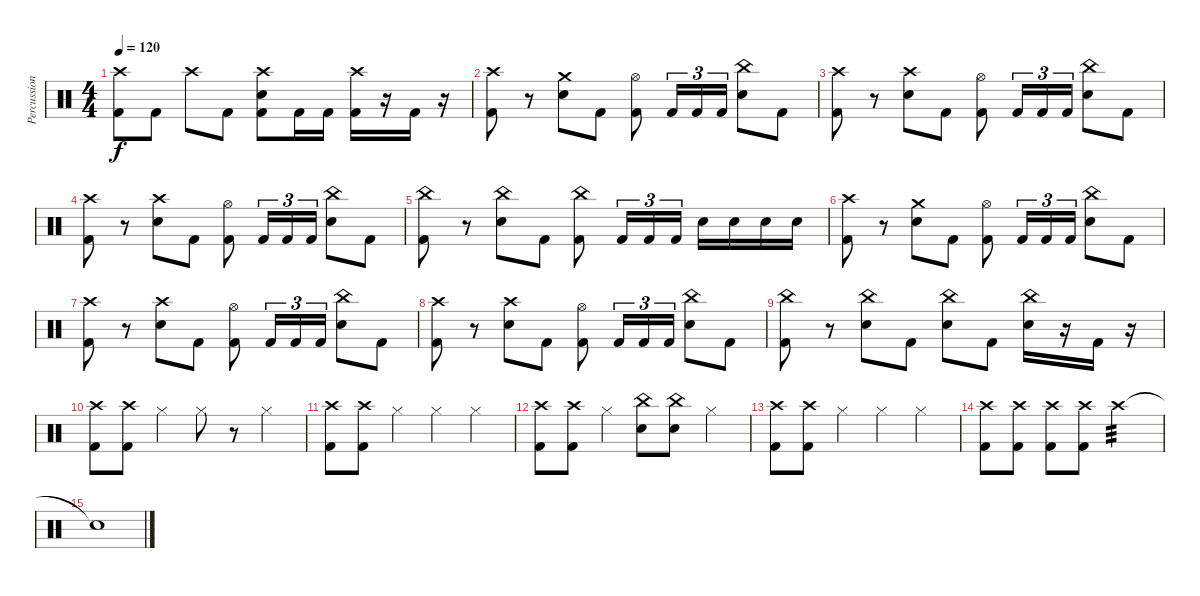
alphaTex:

\track ("Percussion" "Percussion") {instrument percussion}
\staff {score}
\articulation defaults
\ts (4 4)
\tempo 120
\clef neutral
\ks c
("Crash high (hit)" "Kick (hit) 2").8{dy f} "Kick (hit) 2".8 "Crash high (hit)".8 "Kick (hit) 2".8 ("Crash high (hit)" "Snare (hit) 2" "Kick (hit) 2").8 "Kick (hit) 2".16 "Kick (hit) 2".16 ("Crash high (hit)" "Kick (hit) 2").16 r.16 "Kick (hit) 2".16 r.16 |
("Crash high (hit)" "Kick (hit) 2").8 r.8 ("Crash medium (hit)" "Snare (hit) 2").8 "Kick (hit) 2".8 ("Hi-Hat (open)" "Kick (hit) 2").8 "Kick (hit) 2".16{tu (3 2)} "Kick (hit) 2".16{tu (3 2)} "Kick (hit) 2".16{tu (3 2)} ("China (hit)" "Snare (hit) 2").8 "Kick (hit) 2".8 |
("Crash high (hit)" "Kick (hit) 2").8 r.8 ("Crash high (hit)" "Snare (hit) 2").8 "Kick (hit) 2".8 ("Hi-Hat (open)" "Kick (hit) 2").8 "Kick (hit) 2".16{tu (3 2)} "Kick (hit) 2".16{tu (3 2)} "Kick (hit) 2".16{tu (3 2)} ("China (hit)" "Snare (hit) 2").8 "Kick (hit) 2".8 |
("Crash high (hit)" "Kick (hit) 2").8 r.8 ("Crash high (hit)" "Snare (hit) 2").8 "Kick (hit) 2".8 ("Hi-Hat (open)" "Kick (hit) 2").8 "Kick (hit) 2".16{tu (3 2)} "Kick (hit) 2".16{tu (3 2)} "Kick (hit) 2".16{tu (3 2)} ("China (hit)" "Snare (hit) 2").8 "Kick (hit) 2".8 |
("China (hit)" "Kick (hit) 2").8 r.8 ("China (hit)" "Snare (hit) 2").8 "Kick (hit) 2".8 ("China (hit)" "Kick (hit) 2").8 "Kick (hit) 2".16{tu (3 2)} "Kick (hit) 2".16{tu (3 2)} "Kick (hit) 2".16{tu (3 2)} "Snare (hit) 2".16 "Snare (hit) 2".16 "Snare (hit) 2".16 "Snare (hit) 2".16 |
("Crash high (hit)" "Kick (hit) 2").8 r.8 ("Crash medium (hit)" "Snare (hit) 2").8 "Kick (hit) 2".8 ("Hi-Hat (open)" "Kick (hit) 2").8 "Kick (hit) 2".16{tu (3 2)} "Kick (hit) 2".16{tu (3 2)} "Kick (hit) 2".16{tu (3 2)} ("China (hit)" "Snare (hit) 2").8 "Kick (hit) 2".8 |
("Crash high (hit)" "Kick (hit) 2").8 r.8 ("Crash high (hit)" "Snare (hit) 2").8 "Kick (hit) 2".8 ("Hi-Hat (open)" "Kick (hit) 2").8 "Kick (hit) 2".16{tu (3 2)} "Kick (hit) 2".16{tu (3 2)} "Kick (hit) 2".16{tu (3 2)} ("China (hit)" "Snare (hit) 2").8 "Kick (hit) 2".8 |
("Crash high (hit)" "Kick (hit) 2").8 r.8 ("Crash high (hit)" "Snare (hit) 2").8 "Kick (hit) 2".8 ("Hi-Hat (open)" "Kick (hit) 2").8 "Kick (hit) 2".16{tu (3 2)} "Kick (hit) 2".16{tu (3 2)} "Kick (hit) 2".16{tu (3 2)} ("China (hit)" "Snare (hit) 2").8 "Kick (hit) 2".8 |
("China (hit)" "Kick (hit) 2").8 r.8 ("China (hit)" "Snare (hit) 2").8 "Kick (hit) 2".8 ("China (hit)" "Snare (hit) 2").8 "Kick (hit) 2".8 ("China (hit)" "Snare (hit) 2").16 r.16 "Kick (hit) 2".16 r.16 |
("Crash high (hit)" "Kick (hit) 2").8 ("Crash high (hit)" "Kick (hit) 2").8 "Hi-Hat (closed)".4 "Hi-Hat (closed)".8 r.8 "Hi-Hat (closed)".4 |
("Crash high (hit)" "Kick (hit) 2").8 ("Crash high (hit)" "Kick (hit) 2").8 "Hi-Hat (closed)".4 "Hi-Hat (closed)".4 "Hi-Hat (closed)".4 |
("Crash high (hit)" "Kick (hit) 2").8 ("Crash high (hit)" "Kick (hit) 2").8 "Hi-Hat (closed)".4 ("China (hit)" "Snare (hit) 2").8 ("China (hit)" "Snare (hit) 2").8 "Hi-Hat (closed)".4 |
("Crash high (hit)" "Kick (hit) 2").8 ("Crash high (hit)" "Kick (hit) 2").8 "Hi-Hat (closed)".4 "Hi-Hat (closed)".4 "Hi-Hat (closed)".4 |
("Crash high (hit)" "Kick (hit) 2").8 ("Crash high (hit)" "Kick (hit) 2").8 ("Crash high (hit)" "Kick (hit) 2").8 ("Crash high (hit)" "Kick (hit) 2").8 "Crash high (hit)".2{tp 3} |
"Snare (hit)"{t}.1
